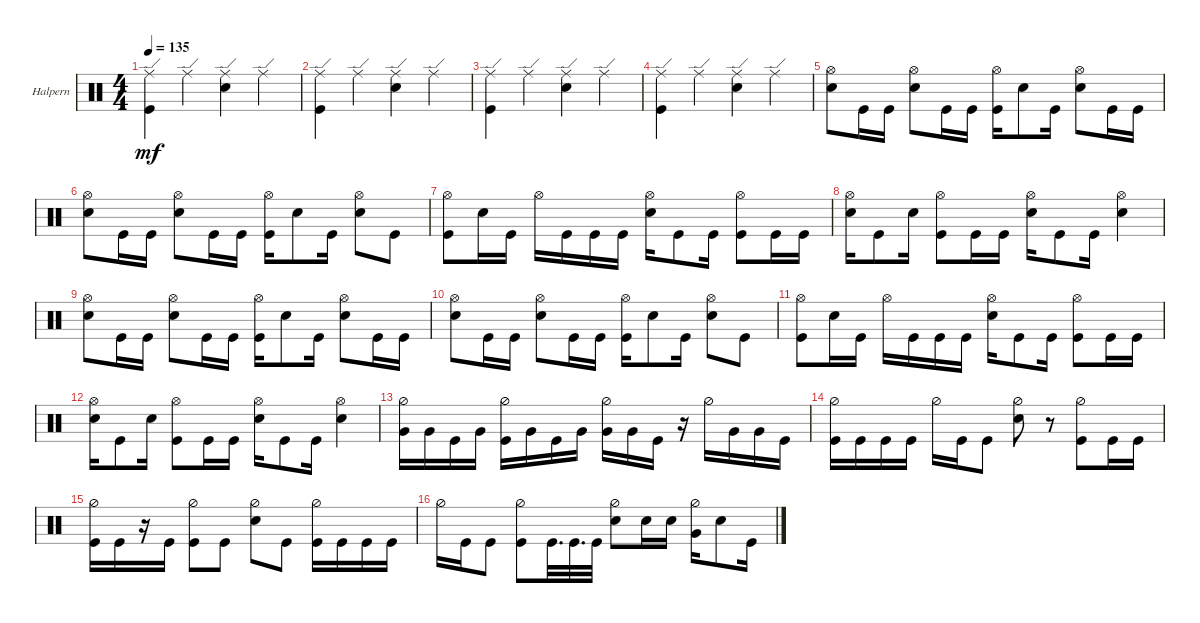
\defaultSystemsLayout 4
\bracketExtendMode groupsimilarinstruments
\multiBarRest
\firstSystemTrackNameOrientation horizontal
\otherSystemsTrackNameOrientation horizontal
\track ("Matt Halpern" "Halpern") {instrument percussion}
\staff {score}
\articulation defaults
\ts (4 4)
\tempo 135
\clef neutral
\ks c
("Ride (edge)" "Kick (hit)").4{dy mf} "Ride (edge)".4 ("Ride (edge)" "Snare (hit) 2").4 "Ride (edge)".4 |
("Ride (edge)" "Kick (hit)").4 "Ride (edge)".4 ("Ride (edge)" "Snare (hit) 2").4 "Ride (edge)".4 |
("Ride (edge)" "Kick (hit)").4 "Ride (edge)".4 ("Ride (edge)" "Snare (hit) 2").4 "Ride (edge)".4 |
("Ride (edge)" "Kick (hit)").4 "Ride (edge)".4 ("Ride (edge)" "Snare (hit) 2").4 "Ride (edge)".4 |
("Snare (hit) 2" "Hi-Hat (open)").8 "Kick (hit)".16 "Kick (hit)".16 ("Snare (hit) 2" "Hi-Hat (open)").8 "Kick (hit)".16 "Kick (hit)".16 ("Kick (hit)" "Hi-Hat (open)").16 "Snare (hit) 2".8 "Kick (hit)".16 ("Snare (hit) 2" "Hi-Hat (open)").8 "Kick (hit)".16 "Kick (hit)".16 |
("Snare (hit) 2" "Hi-Hat (open)").8 "Kick (hit)".16 "Kick (hit)".16 ("Snare (hit) 2" "Hi-Hat (open)").8 "Kick (hit)".16 "Kick (hit)".16 ("Kick (hit)" "Hi-Hat (open)").16 "Snare (hit) 2".8 "Kick (hit)".16 ("Snare (hit) 2" "Hi-Hat (open)").8 "Kick (hit)".8 |
("Hi-Hat (open)" "Kick (hit)").8 "Snare (hit) 2".16 "Kick (hit)".16 "Hi-Hat (open)".16 "Kick (hit)".16 "Kick (hit)".16 "Kick (hit)".16 ("Hi-Hat (open)" "Snare (hit) 2").16 "Kick (hit)".8 "Kick (hit)".16 ("Kick (hit)" "Hi-Hat (open)").8 "Kick (hit)".16 "Kick (hit)".16 |
("Hi-Hat (open)" "Snare (hit) 2").16 "Kick (hit)".8 "Snare (hit) 2".16 ("Hi-Hat (open)" "Kick (hit)").8 "Kick (hit)".16 "Kick (hit)".16 ("Hi-Hat (open)" "Snare (hit) 2").16 "Kick (hit)".8 "Kick (hit)".16 ("Snare (hit) 2" "Hi-Hat (open)").4 |
("Snare (hit) 2" "Hi-Hat (open)").8 "Kick (hit)".16 "Kick (hit)".16 ("Snare (hit) 2" "Hi-Hat (open)").8 "Kick (hit)".16 "Kick (hit)".16 ("Kick (hit)" "Hi-Hat (open)").16 "Snare (hit) 2".8 "Kick (hit)".16 ("Snare (hit) 2" "Hi-Hat (open)").8 "Kick (hit)".16 "Kick (hit)".16 |
("Snare (hit) 2" "Hi-Hat (open)").8 "Kick (hit)".16 "Kick (hit)".16 ("Snare (hit) 2" "Hi-Hat (open)").8 "Kick (hit)".16 "Kick (hit)".16 ("Kick (hit)" "Hi-Hat (open)").16 "Snare (hit) 2".8 "Kick (hit)".16 ("Snare (hit) 2" "Hi-Hat (open)").8 "Kick (hit)".8 |
("Hi-Hat (open)" "Kick (hit)").8 "Snare (hit) 2".16 "Kick (hit)".16 "Hi-Hat (open)".16 "Kick (hit)".16 "Kick (hit)".16 "Kick (hit)".16 ("Hi-Hat (open)" "Snare (hit) 2").16 "Kick (hit)".8 "Kick (hit)".16 ("Kick (hit)" "Hi-Hat (open)").8 "Kick (hit)".16 "Kick (hit)".16 |
("Hi-Hat (open)" "Snare (hit) 2").16 "Kick (hit)".8 "Snare (hit) 2".16 ("Hi-Hat (open)" "Kick (hit)").8 "Kick (hit)".16 "Kick (hit)".16 ("Hi-Hat (open)" "Snare (hit) 2").16 "Kick (hit)".8 "Kick (hit)".16 ("Snare (hit) 2" "Hi-Hat (open)").4 |
("Very Low Tom (hit)" "Hi-Hat (half)").16 "Very Low Tom (hit)".16 "Kick (hit)".16 "Very Low Tom (hit)".16 ("Kick (hit)" "Hi-Hat (half)").16 "Very Low Tom (hit)".16 "Kick (hit)".16 "Very Low Tom (hit)".16 ("Very Low Tom (hit)" "Hi-Hat (half)").16 "Very Low Tom (hit)".16 "Kick (hit)".16 r.16 "Hi-Hat (half)".16 "Very Low Tom (hit)".16 "Very Low Tom (hit)".16 "Kick (hit)".16 |
("Kick (hit)" "Hi-Hat (half)").16 "Kick (hit)".16 "Kick (hit)".16 "Kick (hit)".16 "Hi-Hat (half)".16 "Kick (hit)".16 "Kick (hit)".8 ("Hi-Hat (half)" "Snare (hit) 2").8 r.8 ("Kick (hit)" "Hi-Hat (half)").8 "Kick (hit)".16 "Kick (hit)".16 |
("Kick (hit)" "Hi-Hat (half)").16 "Kick (hit)".16 r.16 "Kick (hit)".16 ("Kick (hit)" "Hi-Hat (half)").8 "Kick (hit)".8 ("Hi-Hat (half)" "Snare (hit) 2").8 "Kick (hit)".8 ("Kick (hit)" "Hi-Hat (half)").16 "Kick (hit)".16 "Kick (hit)".16 "Kick (hit)".16 |
"Hi-Hat (half)".16 "Kick (hit)".16 "Kick (hit)".8 ("Kick (hit)" "Hi-Hat (half)").8 "Kick (hit)".32{d} "Kick (hit)".32{d} "Kick (hit)".32 ("Hi-Hat (half)" "Snare (hit) 2").8 "Snare (hit) 2".16 "Snare (hit) 2".16 ("Hi-Hat (half)" "Very Low Tom (hit)").16 "Snare (hit) 2".8 "Kick (hit)".16
